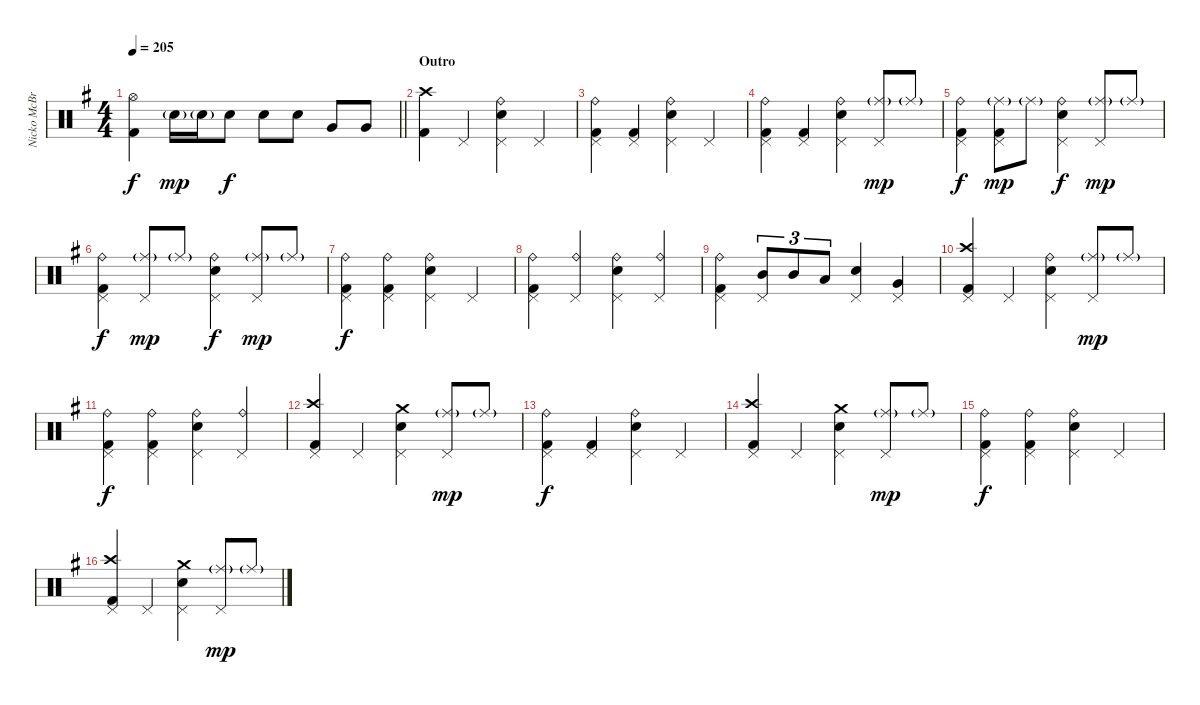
\track ("Nicko McBrain (Drums)" "Nicko McBr") {instrument percussion}
\staff {score}
\articulation defaults
\ts (4 4)
\tempo 205
\clef neutral
\barLineRight lightlight
\ks eminor
("Hi-Hat (open)" "Kick (hit) 2").4{dy f} "Snare (hit) 2"{g}.16{dy mp} "Snare (hit) 2"{g}.16 "Snare (hit) 2".8{dy f} "Snare (hit) 2".8 "Snare (hit) 2".8 "Very Low Tom (hit)".8 "Very Low Tom (hit)".8 |
\section ("" "Outro")
("Crash high (hit)" "Kick (hit) 2").4 "Pedal Hi-Hat (hit)".4 ("Ride (bell)" "Pedal Hi-Hat (hit)" "Snare (hit) 2").4 "Pedal Hi-Hat (hit)".4 |
("Ride (bell)" "Pedal Hi-Hat (hit)" "Kick (hit) 2").4 ("Pedal Hi-Hat (hit)" "Kick (hit) 2").4 ("Ride (bell)" "Pedal Hi-Hat (hit)" "Snare (hit) 2").4 "Pedal Hi-Hat (hit)".4 |
("Ride (bell)" "Pedal Hi-Hat (hit)" "Kick (hit) 2").4 ("Pedal Hi-Hat (hit)" "Kick (hit) 2").4 ("Ride (bell)" "Pedal Hi-Hat (hit)" "Snare (hit) 2").4 ("Ride (middle)"{g} "Pedal Hi-Hat (hit)").8{dy mp} "Ride (middle)"{g}.8 |
("Ride (bell)" "Pedal Hi-Hat (hit)" "Kick (hit) 2").4{dy f} ("Ride (middle)"{g} "Pedal Hi-Hat (hit)" "Kick (hit) 2").8{dy mp} "Ride (middle)"{g}.8 ("Ride (bell)" "Pedal Hi-Hat (hit)" "Snare (hit) 2").4{dy f} ("Ride (middle)"{g} "Pedal Hi-Hat (hit)").8{dy mp} "Ride (middle)"{g}.8 |
("Ride (bell)" "Pedal Hi-Hat (hit)" "Kick (hit) 2").4{dy f} ("Ride (middle)"{g} "Pedal Hi-Hat (hit)").8{dy mp} "Ride (middle)"{g}.8 ("Ride (bell)" "Pedal Hi-Hat (hit)" "Snare (hit) 2").4{dy f} ("Ride (middle)"{g} "Pedal Hi-Hat (hit)").8{dy mp} "Ride (middle)"{g}.8 |
("Ride (bell)" "Pedal Hi-Hat (hit)" "Kick (hit) 2").4{dy f} ("Ride (bell)" "Pedal Hi-Hat (hit)" "Kick (hit) 2").4 ("Ride (bell)" "Pedal Hi-Hat (hit)" "Snare (hit) 2").4 "Pedal Hi-Hat (hit)".4 |
("Ride (bell)" "Pedal Hi-Hat (hit)" "Kick (hit) 2").4 ("Ride (bell)" "Pedal Hi-Hat (hit)").4 ("Ride (bell)" "Pedal Hi-Hat (hit)" "Snare (hit) 2").4 ("Ride (bell)" "Pedal Hi-Hat (hit)").4 |
("Ride (bell)" "Pedal Hi-Hat (hit)" "Kick (hit) 2").4 ("Pedal Hi-Hat (hit)" "Mid Tom (hit)").8{tu (3 2)} "Mid Tom (hit)".8{tu (3 2)} "Low Tom (hit)".8{tu (3 2)} ("Pedal Hi-Hat (hit)" "Snare (hit) 2").4 ("Pedal Hi-Hat (hit)" "Very Low Tom (hit)").4 |
("Crash high (hit)" "Pedal Hi-Hat (hit)" "Kick (hit) 2").4 "Pedal Hi-Hat (hit)".4 ("Ride (bell)" "Pedal Hi-Hat (hit)" "Snare (hit) 2").4 ("Ride (middle)"{g} "Pedal Hi-Hat (hit)").8{dy mp} "Ride (middle)"{g}.8 |
("Ride (bell)" "Pedal Hi-Hat (hit)" "Kick (hit) 2").4{dy f} ("Ride (bell)" "Pedal Hi-Hat (hit)" "Kick (hit) 2").4 ("Ride (bell)" "Pedal Hi-Hat (hit)" "Snare (hit) 2").4 ("Ride (bell)" "Pedal Hi-Hat (hit)").4 |
("Crash high (hit)" "Pedal Hi-Hat (hit)" "Kick (hit) 2").4 "Pedal Hi-Hat (hit)".4 ("Crash medium (hit)" "Pedal Hi-Hat (hit)" "Snare (hit) 2").4 ("Ride (middle)"{g} "Pedal Hi-Hat (hit)").8{dy mp} "Ride (middle)"{g}.8 |
("Ride (bell)" "Pedal Hi-Hat (hit)" "Kick (hit) 2").4{dy f} ("Pedal Hi-Hat (hit)" "Kick (hit) 2").4 ("Ride (bell)" "Pedal Hi-Hat (hit)" "Snare (hit) 2").4 "Pedal Hi-Hat (hit)".4 |
("Crash high (hit)" "Pedal Hi-Hat (hit)" "Kick (hit) 2").4 "Pedal Hi-Hat (hit)".4 ("Crash medium (hit)" "Pedal Hi-Hat (hit)" "Snare (hit) 2").4 ("Ride (middle)"{g} "Pedal Hi-Hat (hit)").8{dy mp} "Ride (middle)"{g}.8 |
("Ride (bell)" "Pedal Hi-Hat (hit)" "Kick (hit) 2").4{dy f} ("Ride (bell)" "Pedal Hi-Hat (hit)" "Kick (hit) 2").4 ("Ride (bell)" "Pedal Hi-Hat (hit)" "Snare (hit) 2").4 "Pedal Hi-Hat (hit)".4 |
("Crash high (hit)" "Pedal Hi-Hat (hit)" "Kick (hit) 2").4 "Pedal Hi-Hat (hit)".4 ("Crash medium (hit)" "Pedal Hi-Hat (hit)" "Snare (hit) 2").4 ("Ride (middle)"{g} "Pedal Hi-Hat (hit)").8{dy mp} "Ride (middle)"{g}.8
